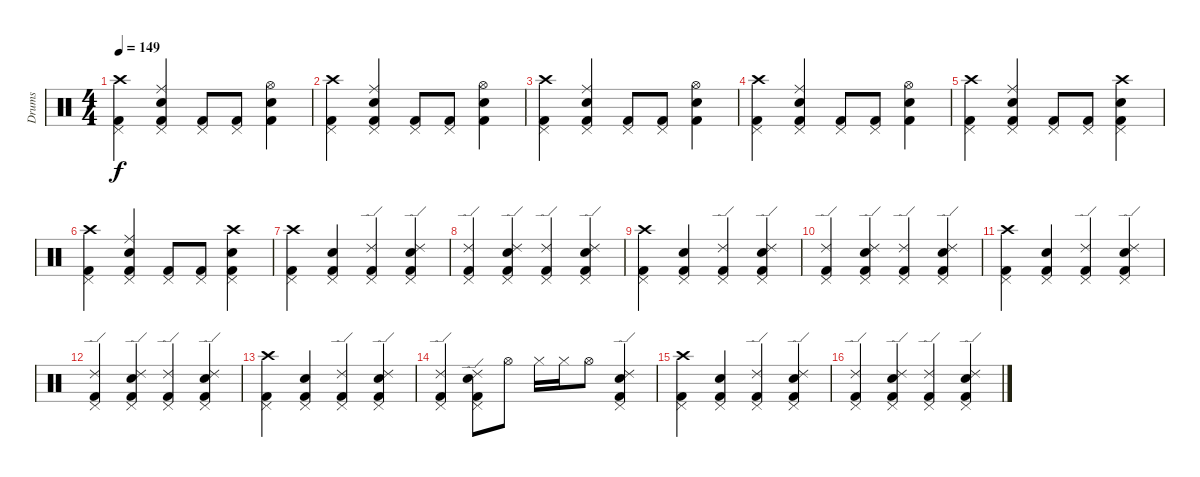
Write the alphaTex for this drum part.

\track ("Drums" "Drums") {instrument percussion}
\staff {score}
\articulation defaults
\ts (4 4)
\tempo 149
\clef neutral
\ks c
("Crash high (hit)" "Kick (hit) 2" "Pedal Hi-Hat (hit)").4{dy f} ("Ride (middle)" "Electric Snare (hit)" "Kick (hit) 2" "Pedal Hi-Hat (hit)").4 ("Kick (hit) 2" "Pedal Hi-Hat (hit)").8 ("Kick (hit) 2" "Pedal Hi-Hat (hit)").8 ("Hi-Hat (open)" "Electric Snare (hit)" "Kick (hit) 2").4 |
("Crash high (hit)" "Kick (hit) 2" "Pedal Hi-Hat (hit)").4 ("Ride (middle)" "Electric Snare (hit)" "Kick (hit) 2" "Pedal Hi-Hat (hit)").4 ("Kick (hit) 2" "Pedal Hi-Hat (hit)").8 ("Kick (hit) 2" "Pedal Hi-Hat (hit)").8 ("Hi-Hat (open)" "Electric Snare (hit)" "Kick (hit) 2").4 |
("Crash high (hit)" "Kick (hit) 2" "Pedal Hi-Hat (hit)").4 ("Ride (middle)" "Electric Snare (hit)" "Kick (hit) 2" "Pedal Hi-Hat (hit)").4 ("Kick (hit) 2" "Pedal Hi-Hat (hit)").8 ("Kick (hit) 2" "Pedal Hi-Hat (hit)").8 ("Hi-Hat (open)" "Electric Snare (hit)" "Kick (hit) 2").4 |
("Crash high (hit)" "Kick (hit) 2" "Pedal Hi-Hat (hit)").4 ("Ride (middle)" "Electric Snare (hit)" "Kick (hit) 2" "Pedal Hi-Hat (hit)").4 ("Kick (hit) 2" "Pedal Hi-Hat (hit)").8 ("Kick (hit) 2" "Pedal Hi-Hat (hit)").8 ("Hi-Hat (open)" "Electric Snare (hit)" "Kick (hit) 2").4 |
("Crash high (hit)" "Kick (hit) 2" "Pedal Hi-Hat (hit)").4 ("Ride (middle)" "Electric Snare (hit)" "Kick (hit) 2" "Pedal Hi-Hat (hit)").4 ("Kick (hit) 2" "Pedal Hi-Hat (hit)").8 ("Kick (hit) 2" "Pedal Hi-Hat (hit)").8 ("Crash high (hit)" "Electric Snare (hit)" "Kick (hit) 2" "Pedal Hi-Hat (hit)").4 |
("Crash high (hit)" "Kick (hit) 2" "Pedal Hi-Hat (hit)").4 ("Ride (middle)" "Electric Snare (hit)" "Kick (hit) 2" "Pedal Hi-Hat (hit)").4 ("Kick (hit) 2" "Pedal Hi-Hat (hit)").8 ("Kick (hit) 2" "Pedal Hi-Hat (hit)").8 ("Crash high (hit)" "Electric Snare (hit)" "Kick (hit) 2" "Pedal Hi-Hat (hit)").4 |
("Crash high (hit)" "Kick (hit) 2" "Pedal Hi-Hat (hit)").4 ("Electric Snare (hit)" "Kick (hit) 2" "Pedal Hi-Hat (hit)").4 ("Ride (edge) 2" "Kick (hit) 2" "Pedal Hi-Hat (hit)").4 ("Ride (edge) 2" "Electric Snare (hit)" "Kick (hit) 2" "Pedal Hi-Hat (hit)").4 |
("Ride (edge) 2" "Kick (hit) 2" "Pedal Hi-Hat (hit)").4 ("Ride (edge) 2" "Electric Snare (hit)" "Kick (hit) 2" "Pedal Hi-Hat (hit)").4 ("Ride (edge) 2" "Kick (hit) 2" "Pedal Hi-Hat (hit)").4 ("Ride (edge) 2" "Electric Snare (hit)" "Kick (hit) 2" "Pedal Hi-Hat (hit)").4 |
("Crash high (hit)" "Kick (hit) 2" "Pedal Hi-Hat (hit)").4 ("Electric Snare (hit)" "Kick (hit) 2" "Pedal Hi-Hat (hit)").4 ("Ride (edge) 2" "Kick (hit) 2" "Pedal Hi-Hat (hit)").4 ("Ride (edge) 2" "Electric Snare (hit)" "Kick (hit) 2" "Pedal Hi-Hat (hit)").4 |
("Ride (edge) 2" "Kick (hit) 2" "Pedal Hi-Hat (hit)").4 ("Ride (edge) 2" "Electric Snare (hit)" "Kick (hit) 2" "Pedal Hi-Hat (hit)").4 ("Ride (edge) 2" "Kick (hit) 2" "Pedal Hi-Hat (hit)").4 ("Ride (edge) 2" "Electric Snare (hit)" "Kick (hit) 2" "Pedal Hi-Hat (hit)").4 |
("Crash high (hit)" "Kick (hit) 2" "Pedal Hi-Hat (hit)").4 ("Electric Snare (hit)" "Kick (hit) 2" "Pedal Hi-Hat (hit)").4 ("Ride (edge) 2" "Kick (hit) 2" "Pedal Hi-Hat (hit)").4 ("Ride (edge) 2" "Electric Snare (hit)" "Kick (hit) 2" "Pedal Hi-Hat (hit)").4 |
("Ride (edge) 2" "Kick (hit) 2" "Pedal Hi-Hat (hit)").4 ("Ride (edge) 2" "Electric Snare (hit)" "Kick (hit) 2" "Pedal Hi-Hat (hit)").4 ("Ride (edge) 2" "Kick (hit) 2" "Pedal Hi-Hat (hit)").4 ("Ride (edge) 2" "Electric Snare (hit)" "Kick (hit) 2" "Pedal Hi-Hat (hit)").4 |
("Crash high (hit)" "Kick (hit) 2" "Pedal Hi-Hat (hit)").4 ("Electric Snare (hit)" "Kick (hit) 2" "Pedal Hi-Hat (hit)").4 ("Ride (edge) 2" "Kick (hit) 2" "Pedal Hi-Hat (hit)").4 ("Ride (edge) 2" "Electric Snare (hit)" "Kick (hit) 2" "Pedal Hi-Hat (hit)").4 |
("Ride (edge) 2" "Kick (hit) 2" "Pedal Hi-Hat (hit)").4 ("Ride (edge) 2" "Electric Snare (hit)" "Kick (hit) 2" "Pedal Hi-Hat (hit)").8 "Hi-Hat (open)".8 "Hi-Hat (closed)".16 "Hi-Hat (closed)".16 "Hi-Hat (open)".8 ("Ride (edge) 2" "Electric Snare (hit)" "Kick (hit) 2" "Pedal Hi-Hat (hit)").4 |
("Crash high (hit)" "Kick (hit) 2" "Pedal Hi-Hat (hit)").4 ("Electric Snare (hit)" "Kick (hit) 2" "Pedal Hi-Hat (hit)").4 ("Ride (edge) 2" "Kick (hit) 2" "Pedal Hi-Hat (hit)").4 ("Ride (edge) 2" "Electric Snare (hit)" "Kick (hit) 2" "Pedal Hi-Hat (hit)").4 |
("Ride (edge) 2" "Kick (hit) 2" "Pedal Hi-Hat (hit)").4 ("Ride (edge) 2" "Electric Snare (hit)" "Kick (hit) 2" "Pedal Hi-Hat (hit)").4 ("Ride (edge) 2" "Kick (hit) 2" "Pedal Hi-Hat (hit)").4 ("Ride (edge) 2" "Electric Snare (hit)" "Kick (hit) 2" "Pedal Hi-Hat (hit)").4
